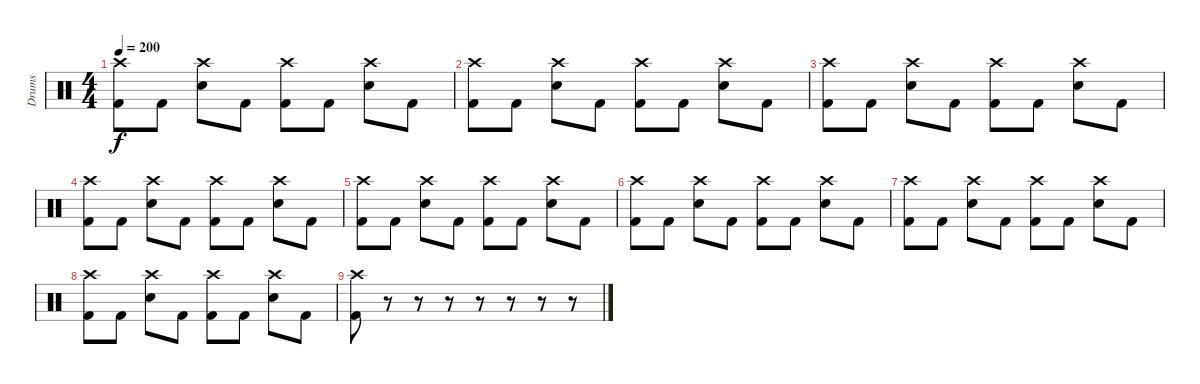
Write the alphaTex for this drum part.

\track ("Drums" "Drums") {instrument percussion}
\staff {score}
\articulation defaults
\ts (4 4)
\tempo 200
\clef neutral
\ks c
("Crash high (hit)" "Kick (hit) 2").8{dy f} "Kick (hit) 2".8 ("Crash high (hit)" "Electric Snare (hit)").8 "Kick (hit) 2".8 ("Crash high (hit)" "Kick (hit) 2").8 "Kick (hit) 2".8 ("Crash high (hit)" "Electric Snare (hit)").8 "Kick (hit) 2".8 |
("Crash high (hit)" "Kick (hit) 2").8 "Kick (hit) 2".8 ("Crash high (hit)" "Electric Snare (hit)").8 "Kick (hit) 2".8 ("Crash high (hit)" "Kick (hit) 2").8 "Kick (hit) 2".8 ("Crash high (hit)" "Electric Snare (hit)").8 "Kick (hit) 2".8 |
("Crash high (hit)" "Kick (hit) 2").8 "Kick (hit) 2".8 ("Crash high (hit)" "Electric Snare (hit)").8 "Kick (hit) 2".8 ("Crash high (hit)" "Kick (hit) 2").8 "Kick (hit) 2".8 ("Crash high (hit)" "Electric Snare (hit)").8 "Kick (hit) 2".8 |
("Crash high (hit)" "Kick (hit) 2").8 "Kick (hit) 2".8 ("Crash high (hit)" "Electric Snare (hit)").8 "Kick (hit) 2".8 ("Crash high (hit)" "Kick (hit) 2").8 "Kick (hit) 2".8 ("Crash high (hit)" "Electric Snare (hit)").8 "Kick (hit) 2".8 |
("Crash high (hit)" "Kick (hit) 2").8 "Kick (hit) 2".8 ("Crash high (hit)" "Electric Snare (hit)").8 "Kick (hit) 2".8 ("Crash high (hit)" "Kick (hit) 2").8 "Kick (hit) 2".8 ("Crash high (hit)" "Electric Snare (hit)").8 "Kick (hit) 2".8 |
("Crash high (hit)" "Kick (hit) 2").8 "Kick (hit) 2".8 ("Crash high (hit)" "Electric Snare (hit)").8 "Kick (hit) 2".8 ("Crash high (hit)" "Kick (hit) 2").8 "Kick (hit) 2".8 ("Crash high (hit)" "Electric Snare (hit)").8 "Kick (hit) 2".8 |
("Crash high (hit)" "Kick (hit) 2").8 "Kick (hit) 2".8 ("Crash high (hit)" "Electric Snare (hit)").8 "Kick (hit) 2".8 ("Crash high (hit)" "Kick (hit) 2").8 "Kick (hit) 2".8 ("Crash high (hit)" "Electric Snare (hit)").8 "Kick (hit) 2".8 |
("Crash high (hit)" "Kick (hit) 2").8 "Kick (hit) 2".8 ("Crash high (hit)" "Electric Snare (hit)").8 "Kick (hit) 2".8 ("Crash high (hit)" "Kick (hit) 2").8 "Kick (hit) 2".8 ("Crash high (hit)" "Electric Snare (hit)").8 "Kick (hit) 2".8 |
("Crash high (hit)" "Kick (hit) 2").8 r.8 r.8 r.8 r.8 r.8 r.8 r.8
